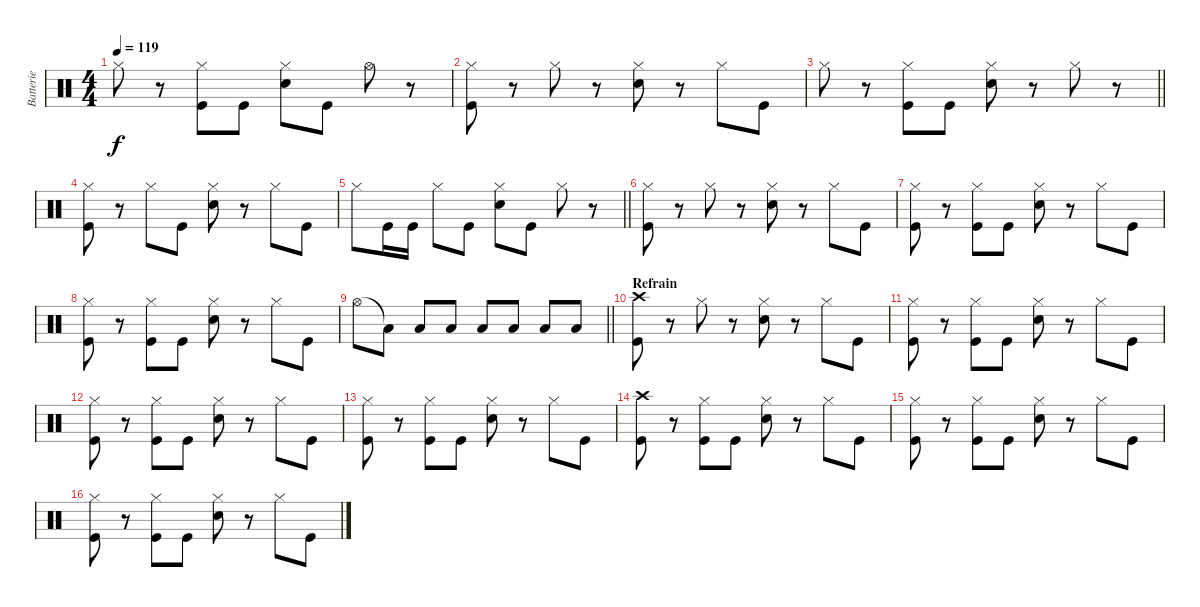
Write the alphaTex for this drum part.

\track ("Batterie" "Batterie") {instrument percussion}
\staff {score}
\articulation defaults
\ts (4 4)
\tempo 119
\clef neutral
\ks c "Hi-Hat (closed)".8{dy f}
r.8 ("Hi-Hat (closed)" "Kick (hit)").8 "Kick (hit)".8 ("Hi-Hat (closed)" "Electric Snare (hit)").8 "Kick (hit)".8 "Hi-Hat (open)".8 r.8 |
("Hi-Hat (closed)" "Kick (hit)").8 r.8 "Hi-Hat (closed)".8 r.8 ("Hi-Hat (closed)" "Electric Snare (hit)").8 r.8 "Hi-Hat (closed)".8 "Kick (hit)".8 |
\barLineRight lightlight "Hi-Hat (closed)".8
r.8 ("Hi-Hat (closed)" "Kick (hit)").8 "Kick (hit)".8 ("Hi-Hat (closed)" "Electric Snare (hit)").8 r.8 "Hi-Hat (closed)".8 r.8 |
("Hi-Hat (closed)" "Kick (hit)").8 r.8 "Hi-Hat (closed)".8 "Kick (hit)".8 ("Hi-Hat (closed)" "Electric Snare (hit)").8 r.8 "Hi-Hat (closed)".8 "Kick (hit)".8 |
\barLineRight lightlight "Hi-Hat (closed)".8 "Kick (hit)".16 "Kick (hit)".16 "Hi-Hat (closed)".8 "Kick (hit)".8
("Hi-Hat (closed)" "Electric Snare (hit)").8 "Kick (hit)".8 "Hi-Hat (closed)".8 r.8 |
("Hi-Hat (closed)" "Kick (hit)").8 r.8 "Hi-Hat (closed)".8 r.8 ("Hi-Hat (closed)" "Electric Snare (hit)").8 r.8 "Hi-Hat (closed)".8 "Kick (hit)".8 |
("Hi-Hat (closed)" "Kick (hit)").8 r.8 ("Hi-Hat (closed)" "Kick (hit)").8 "Kick (hit)".8 ("Hi-Hat (closed)" "Electric Snare (hit)").8 r.8 "Hi-Hat (closed)".8 "Kick (hit)".8 |
("Hi-Hat (closed)" "Kick (hit)").8 r.8 ("Hi-Hat (closed)" "Kick (hit)").8 "Kick (hit)".8 ("Hi-Hat (closed)" "Electric Snare (hit)").8 r.8 "Hi-Hat (closed)".8 "Kick (hit)".8 |
\barLineRight lightlight "Hi-Hat (open)".8 "Low Floor Tom (hit)"{t}.8 "Low Floor Tom (hit)".8 "Low Floor Tom (hit)".8 "Low Floor Tom (hit)".8 "Low Floor Tom (hit)".8 "Low Floor Tom (hit)".8 "Low Floor Tom (hit)".8
|
\section ("" "Refrain")
("Crash high (hit)" "Kick (hit)").8 r.8 "Hi-Hat (closed)".8 r.8 ("Hi-Hat (closed)" "Electric Snare (hit)").8 r.8 "Hi-Hat (closed)".8 "Kick (hit)".8 |
("Hi-Hat (closed)" "Kick (hit)").8 r.8 ("Hi-Hat (closed)" "Kick (hit)").8 "Kick (hit)".8 ("Hi-Hat (closed)" "Electric Snare (hit)").8 r.8 "Hi-Hat (closed)".8 "Kick (hit)".8 |
("Hi-Hat (closed)" "Kick (hit)").8 r.8 ("Hi-Hat (closed)" "Kick (hit)").8 "Kick (hit)".8 ("Hi-Hat (closed)" "Electric Snare (hit)").8 r.8 "Hi-Hat (closed)".8 "Kick (hit)".8 |
("Hi-Hat (closed)" "Kick (hit)").8 r.8 ("Hi-Hat (closed)" "Kick (hit)").8 "Kick (hit)".8 ("Hi-Hat (closed)" "Electric Snare (hit)").8 r.8 "Hi-Hat (closed)".8 "Kick (hit)".8 |
("Crash high (hit)" "Kick (hit)").8 r.8 ("Hi-Hat (closed)" "Kick (hit)").8 "Kick (hit)".8 ("Hi-Hat (closed)" "Electric Snare (hit)").8 r.8 "Hi-Hat (closed)".8 "Kick (hit)".8 |
("Hi-Hat (closed)" "Kick (hit)").8 r.8 ("Hi-Hat (closed)" "Kick (hit)").8 "Kick (hit)".8 ("Hi-Hat (closed)" "Electric Snare (hit)").8 r.8 "Hi-Hat (closed)".8 "Kick (hit)".8 |
("Hi-Hat (closed)" "Kick (hit)").8 r.8 ("Hi-Hat (closed)" "Kick (hit)").8 "Kick (hit)".8 ("Hi-Hat (closed)" "Electric Snare (hit)").8 r.8 "Hi-Hat (closed)".8 "Kick (hit)".8
